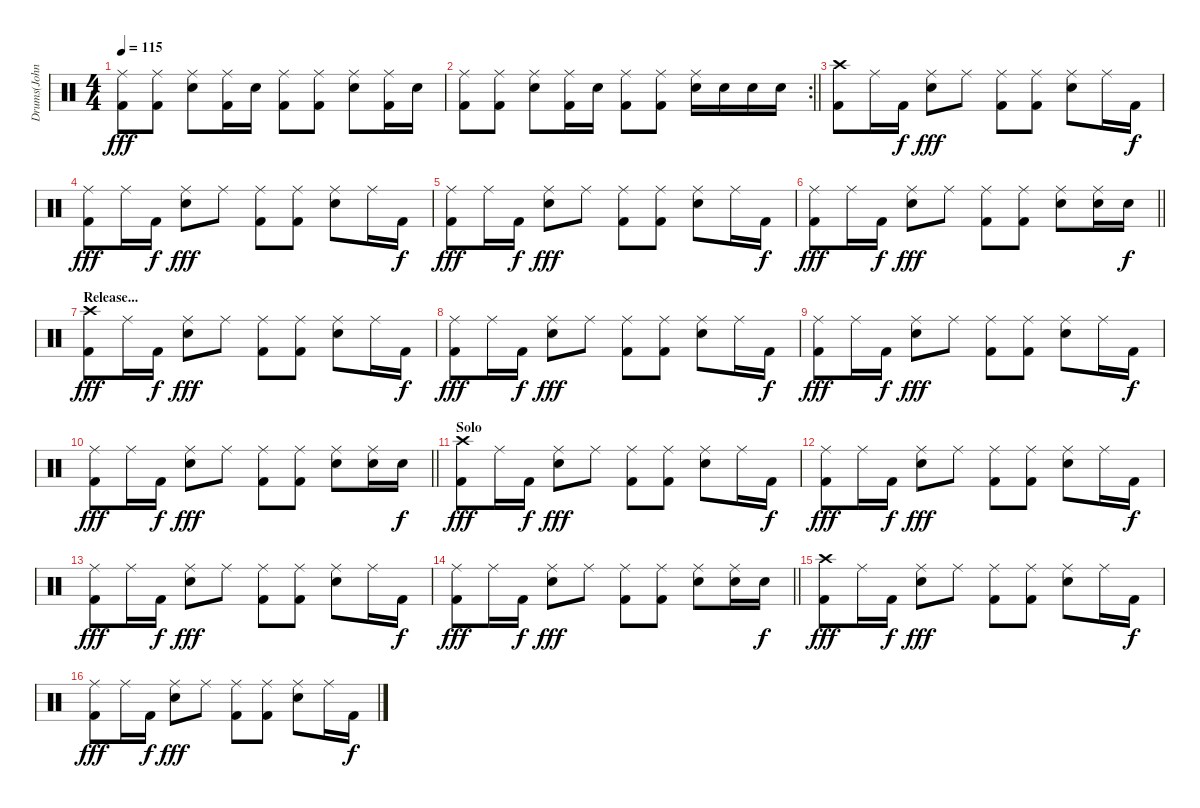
\track ("Drums(John)" "Drums(John") {instrument percussion}
\staff {score}
\articulation defaults
\ts (4 4)
\tempo 115
\clef neutral
\ks c
("Ride (middle)" "Kick (hit) 2").8{dy fff} ("Ride (middle)" "Kick (hit) 2").8 ("Ride (middle)" "Snare (hit) 2").8 ("Ride (middle)" "Kick (hit) 2").16 "Snare (hit) 2".16 ("Ride (middle)" "Kick (hit) 2").8 ("Ride (middle)" "Kick (hit) 2").8 ("Ride (middle)" "Snare (hit) 2").8 ("Ride (middle)" "Kick (hit) 2").16 "Snare (hit) 2".16 |
\rc 2
\barLineRight lightlight
("Ride (middle)" "Kick (hit) 2").8 ("Ride (middle)" "Kick (hit) 2").8 ("Ride (middle)" "Snare (hit) 2").8 ("Ride (middle)" "Kick (hit) 2").16 "Snare (hit) 2".16 ("Ride (middle)" "Kick (hit) 2").8 ("Ride (middle)" "Kick (hit) 2").8 ("Ride (middle)" "Snare (hit) 2").16 "Snare (hit) 2".16 "Snare (hit) 2".16 "Snare (hit) 2".16 |
\section ("" "")
("Crash high (hit)" "Kick (hit) 2").8 "Ride (middle)".16 "Kick (hit) 2".16{dy f} ("Ride (middle)" "Snare (hit) 2").8{dy fff} "Ride (middle)".8 ("Ride (middle)" "Kick (hit) 2").8 ("Ride (middle)" "Kick (hit) 2").8 ("Ride (middle)" "Snare (hit) 2").8 "Ride (middle)".16 "Kick (hit) 2".16{dy f} |
("Ride (middle)" "Kick (hit) 2").8{dy fff} "Ride (middle)".16 "Kick (hit) 2".16{dy f} ("Ride (middle)" "Snare (hit) 2").8{dy fff} "Ride (middle)".8 ("Ride (middle)" "Kick (hit) 2").8 ("Ride (middle)" "Kick (hit) 2").8 ("Ride (middle)" "Snare (hit) 2").8 "Ride (middle)".16 "Kick (hit) 2".16{dy f} |
("Ride (middle)" "Kick (hit) 2").8{dy fff} "Ride (middle)".16 "Kick (hit) 2".16{dy f} ("Ride (middle)" "Snare (hit) 2").8{dy fff} "Ride (middle)".8 ("Ride (middle)" "Kick (hit) 2").8 ("Ride (middle)" "Kick (hit) 2").8 ("Ride (middle)" "Snare (hit) 2").8 "Ride (middle)".16 "Kick (hit) 2".16{dy f} |
\barLineRight lightlight
("Ride (middle)" "Kick (hit) 2").8{dy fff} "Ride (middle)".16 "Kick (hit) 2".16{dy f} ("Ride (middle)" "Snare (hit) 2").8{dy fff} "Ride (middle)".8 ("Ride (middle)" "Kick (hit) 2").8 ("Ride (middle)" "Kick (hit) 2").8 ("Ride (middle)" "Snare (hit) 2").8 ("Ride (middle)" "Snare (hit) 2").16 "Snare (hit) 2".16{dy f} |
\section ("" "Release...")
("Crash high (hit)" "Kick (hit) 2").8{dy fff} "Ride (middle)".16 "Kick (hit) 2".16{dy f} ("Ride (middle)" "Snare (hit) 2").8{dy fff} "Ride (middle)".8 ("Ride (middle)" "Kick (hit) 2").8 ("Ride (middle)" "Kick (hit) 2").8 ("Ride (middle)" "Snare (hit) 2").8 "Ride (middle)".16 "Kick (hit) 2".16{dy f} |
("Ride (middle)" "Kick (hit) 2").8{dy fff} "Ride (middle)".16 "Kick (hit) 2".16{dy f} ("Ride (middle)" "Snare (hit) 2").8{dy fff} "Ride (middle)".8 ("Ride (middle)" "Kick (hit) 2").8 ("Ride (middle)" "Kick (hit) 2").8 ("Ride (middle)" "Snare (hit) 2").8 "Ride (middle)".16 "Kick (hit) 2".16{dy f} |
("Ride (middle)" "Kick (hit) 2").8{dy fff} "Ride (middle)".16 "Kick (hit) 2".16{dy f} ("Ride (middle)" "Snare (hit) 2").8{dy fff} "Ride (middle)".8 ("Ride (middle)" "Kick (hit) 2").8 ("Ride (middle)" "Kick (hit) 2").8 ("Ride (middle)" "Snare (hit) 2").8 "Ride (middle)".16 "Kick (hit) 2".16{dy f} |
\barLineRight lightlight
("Ride (middle)" "Kick (hit) 2").8{dy fff} "Ride (middle)".16 "Kick (hit) 2".16{dy f} ("Ride (middle)" "Snare (hit) 2").8{dy fff} "Ride (middle)".8 ("Ride (middle)" "Kick (hit) 2").8 ("Ride (middle)" "Kick (hit) 2").8 ("Ride (middle)" "Snare (hit) 2").8 ("Ride (middle)" "Snare (hit) 2").16 "Snare (hit) 2".16{dy f} |
\section ("" "Solo")
("Crash high (hit)" "Kick (hit) 2").8{dy fff} "Ride (middle)".16 "Kick (hit) 2".16{dy f} ("Ride (middle)" "Snare (hit) 2").8{dy fff} "Ride (middle)".8 ("Ride (middle)" "Kick (hit) 2").8 ("Ride (middle)" "Kick (hit) 2").8 ("Ride (middle)" "Snare (hit) 2").8 "Ride (middle)".16 "Kick (hit) 2".16{dy f} |
("Ride (middle)" "Kick (hit) 2").8{dy fff} "Ride (middle)".16 "Kick (hit) 2".16{dy f} ("Ride (middle)" "Snare (hit) 2").8{dy fff} "Ride (middle)".8 ("Ride (middle)" "Kick (hit) 2").8 ("Ride (middle)" "Kick (hit) 2").8 ("Ride (middle)" "Snare (hit) 2").8 "Ride (middle)".16 "Kick (hit) 2".16{dy f} |
("Ride (middle)" "Kick (hit) 2").8{dy fff} "Ride (middle)".16 "Kick (hit) 2".16{dy f} ("Ride (middle)" "Snare (hit) 2").8{dy fff} "Ride (middle)".8 ("Ride (middle)" "Kick (hit) 2").8 ("Ride (middle)" "Kick (hit) 2").8 ("Ride (middle)" "Snare (hit) 2").8 "Ride (middle)".16 "Kick (hit) 2".16{dy f} |
\barLineRight lightlight
("Ride (middle)" "Kick (hit) 2").8{dy fff} "Ride (middle)".16 "Kick (hit) 2".16{dy f} ("Ride (middle)" "Snare (hit) 2").8{dy fff} "Ride (middle)".8 ("Ride (middle)" "Kick (hit) 2").8 ("Ride (middle)" "Kick (hit) 2").8 ("Ride (middle)" "Snare (hit) 2").8 ("Ride (middle)" "Snare (hit) 2").16 "Snare (hit) 2".16{dy f} |
("Crash high (hit)" "Kick (hit) 2").8{dy fff} "Ride (middle)".16 "Kick (hit) 2".16{dy f} ("Ride (middle)" "Snare (hit) 2").8{dy fff} "Ride (middle)".8 ("Ride (middle)" "Kick (hit) 2").8 ("Ride (middle)" "Kick (hit) 2").8 ("Ride (middle)" "Snare (hit) 2").8 "Ride (middle)".16 "Kick (hit) 2".16{dy f} |
("Ride (middle)" "Kick (hit) 2").8{dy fff} "Ride (middle)".16 "Kick (hit) 2".16{dy f} ("Ride (middle)" "Snare (hit) 2").8{dy fff} "Ride (middle)".8 ("Ride (middle)" "Kick (hit) 2").8 ("Ride (middle)" "Kick (hit) 2").8 ("Ride (middle)" "Snare (hit) 2").8 "Ride (middle)".16 "Kick (hit) 2".16{dy f}
